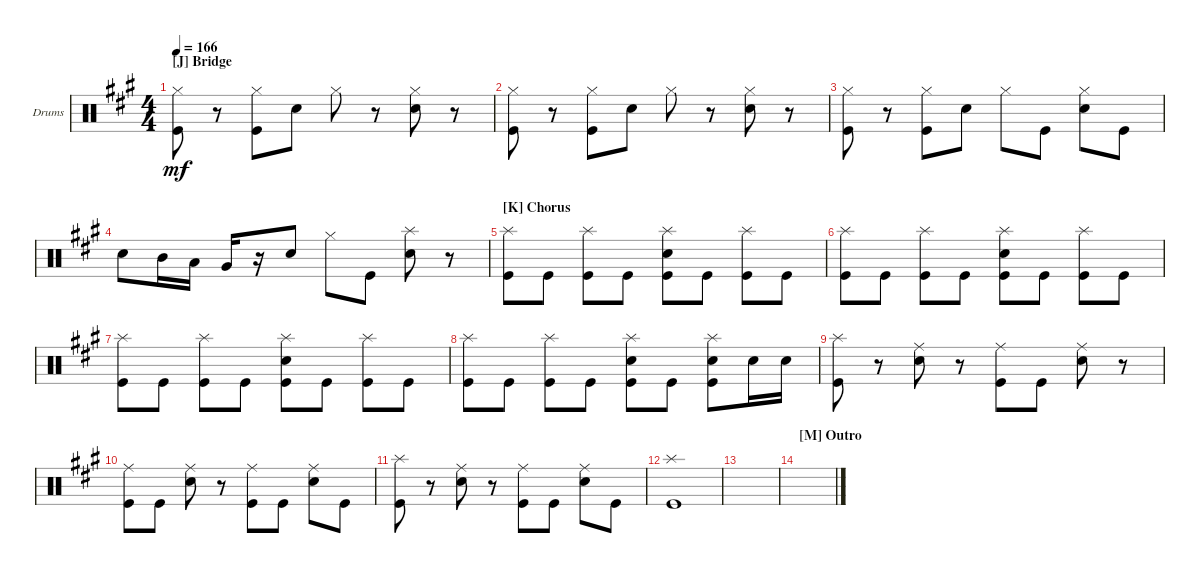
\defaultSystemsLayout 4
\bracketExtendMode groupsimilarinstruments
\firstSystemTrackNameOrientation horizontal
\otherSystemsTrackNameOrientation horizontal
\track ("Drumkit" "Drums") {instrument percussion}
\staff {score}
\articulation defaults
\ts (4 4)
\section ("J" "Bridge")
\tempo 166
\clef neutral
\ks a
("Kick (hit)" "Hi-Hat (closed)").8{dy mf} r.8 ("Kick (hit)" "Hi-Hat (closed)").8 "Snare (hit) 2".8 "Hi-Hat (closed)".8 r.8 ("Snare (hit) 2" "Hi-Hat (closed)").8 r.8 |
("Kick (hit)" "Hi-Hat (closed)").8 r.8 ("Kick (hit)" "Hi-Hat (closed)").8 "Snare (hit) 2".8 "Hi-Hat (closed)".8 r.8 ("Snare (hit) 2" "Hi-Hat (closed)").8 r.8 |
("Kick (hit)" "Hi-Hat (closed)").8 r.8 ("Kick (hit)" "Hi-Hat (closed)").8 "Snare (hit) 2".8 "Hi-Hat (closed)".8 "Kick (hit)".8 ("Snare (hit) 2" "Hi-Hat (closed)").8 "Kick (hit)".8 |
"Snare (hit) 2".8 "Mid Tom (hit)".16 "Low Tom (hit)".16 "Very Low Tom (hit)".16 r.16 "Snare (hit) 2".8 "Hi-Hat (closed)".8 "Kick (hit)".8 ("Splash (hit)" "Snare (hit) 2").8 r.8 |
\section ("K" "Chorus")
("Kick (hit)" "Splash (hit)").8 "Kick (hit)".8 ("Kick (hit)" "Splash (hit)").8 "Kick (hit)".8 ("Kick (hit)" "Splash (hit)" "Snare (hit) 2").8 "Kick (hit)".8 ("Kick (hit)" "Splash (hit)").8 "Kick (hit)".8 |
("Kick (hit)" "Splash (hit)").8 "Kick (hit)".8 ("Kick (hit)" "Splash (hit)").8 "Kick (hit)".8 ("Kick (hit)" "Splash (hit)" "Snare (hit) 2").8 "Kick (hit)".8 ("Kick (hit)" "Splash (hit)").8 "Kick (hit)".8 |
("Kick (hit)" "Splash (hit)").8 "Kick (hit)".8 ("Kick (hit)" "Splash (hit)").8 "Kick (hit)".8 ("Kick (hit)" "Splash (hit)" "Snare (hit) 2").8 "Kick (hit)".8 ("Kick (hit)" "Splash (hit)").8 "Kick (hit)".8 |
("Kick (hit)" "Splash (hit)").8 "Kick (hit)".8 ("Kick (hit)" "Splash (hit)").8 "Kick (hit)".8 ("Kick (hit)" "Splash (hit)" "Snare (hit) 2").8 "Kick (hit)".8 ("Kick (hit)" "Splash (hit)" "Snare (hit) 2").8 "Snare (hit) 2".16 "Snare (hit) 2".16 |
("Splash (hit)" "Kick (hit)").8 r.8 ("Snare (hit) 2" "Ride (middle)").8 r.8 ("Kick (hit)" "Ride (middle)").8 "Kick (hit)".8 ("Snare (hit) 2" "Ride (middle)").8 r.8 |
("Kick (hit)" "Ride (middle)").8 "Kick (hit)".8 ("Snare (hit) 2" "Ride (middle)").8 r.8 ("Kick (hit)" "Ride (middle)").8 "Kick (hit)".8 ("Snare (hit) 2" "Ride (middle)").8 "Kick (hit)".8 |
("Splash (hit)" "Kick (hit)").8 r.8 ("Snare (hit) 2" "Ride (middle)").8 r.8 ("Kick (hit)" "Ride (middle)").8 "Kick (hit)".8 ("Snare (hit) 2" "Ride (middle)").8 "Kick (hit)".8 |
("Kick (hit)" "Splash (hit)").1 |
|
\section ("M" "Outro")
